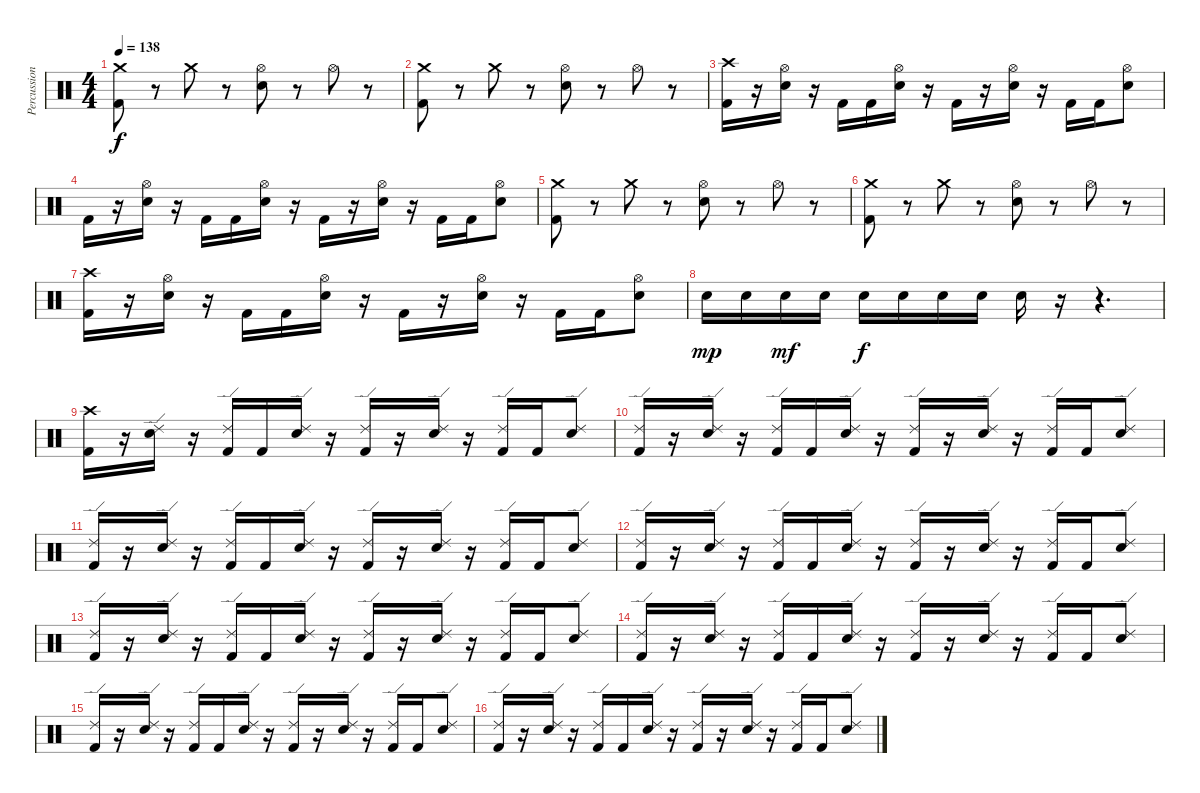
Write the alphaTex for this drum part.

\track ("Percussion" "Percussion") {instrument percussion}
\staff {score}
\articulation defaults
\ts (4 4)
\tempo 138
\clef neutral
\ks c
("Crash medium (hit)" "Kick (hit) 2").8{dy f} r.8 "Crash medium (hit)".8 r.8 ("Hi-Hat (open)" "Electric Snare (hit)").8 r.8 "Hi-Hat (open)".8 r.8 |
("Crash medium (hit)" "Kick (hit) 2").8 r.8 "Crash medium (hit)".8 r.8 ("Hi-Hat (open)" "Electric Snare (hit)").8 r.8 "Hi-Hat (open)".8 r.8 |
("Crash high (hit)" "Kick (hit) 2").16 r.16 ("Hi-Hat (open)" "Electric Snare (hit)").16 r.16 "Kick (hit) 2".16 "Kick (hit) 2".16 ("Hi-Hat (open)" "Electric Snare (hit)").16 r.16 "Kick (hit) 2".16 r.16 ("Hi-Hat (open)" "Electric Snare (hit)").16 r.16 "Kick (hit) 2".16 "Kick (hit) 2".16 ("Hi-Hat (open)" "Electric Snare (hit)").8 |
"Kick (hit) 2".16 r.16 ("Hi-Hat (open)" "Electric Snare (hit)").16 r.16 "Kick (hit) 2".16 "Kick (hit) 2".16 ("Hi-Hat (open)" "Electric Snare (hit)").16 r.16 "Kick (hit) 2".16 r.16 ("Hi-Hat (open)" "Electric Snare (hit)").16 r.16 "Kick (hit) 2".16 "Kick (hit) 2".16 ("Hi-Hat (open)" "Electric Snare (hit)").8 |
("Crash medium (hit)" "Kick (hit) 2").8 r.8 "Crash medium (hit)".8 r.8 ("Hi-Hat (open)" "Electric Snare (hit)").8 r.8 "Hi-Hat (open)".8 r.8 |
("Crash medium (hit)" "Kick (hit) 2").8 r.8 "Crash medium (hit)".8 r.8 ("Hi-Hat (open)" "Electric Snare (hit)").8 r.8 "Hi-Hat (open)".8 r.8 |
("Crash high (hit)" "Kick (hit) 2").16 r.16 ("Hi-Hat (open)" "Electric Snare (hit)").16 r.16 "Kick (hit) 2".16 "Kick (hit) 2".16 ("Hi-Hat (open)" "Electric Snare (hit)").16 r.16 "Kick (hit) 2".16 r.16 ("Hi-Hat (open)" "Electric Snare (hit)").16 r.16 "Kick (hit) 2".16 "Kick (hit) 2".16 ("Hi-Hat (open)" "Electric Snare (hit)").8 |
"Electric Snare (hit)".16{dy mp} "Electric Snare (hit)".16 "Electric Snare (hit)".16{dy mf} "Electric Snare (hit)".16 "Electric Snare (hit)".16{dy f} "Electric Snare (hit)".16 "Electric Snare (hit)".16 "Electric Snare (hit)".16 "Electric Snare (hit)".16 r.16 r.4{d} |
("Crash high (hit)" "Kick (hit) 2").16 r.16 ("Ride (edge) 2" "Electric Snare (hit)").16 r.16 ("Ride (edge) 2" "Kick (hit) 2").16 "Kick (hit) 2".16 ("Ride (edge) 2" "Electric Snare (hit)").16 r.16 ("Ride (edge) 2" "Kick (hit) 2").16 r.16 ("Ride (edge) 2" "Electric Snare (hit)").16 r.16 ("Ride (edge) 2" "Kick (hit) 2").16 "Kick (hit) 2".16 ("Ride (edge) 2" "Electric Snare (hit)").8 |
("Ride (edge) 2" "Kick (hit) 2").16 r.16 ("Ride (edge) 2" "Electric Snare (hit)").16 r.16 ("Ride (edge) 2" "Kick (hit) 2").16 "Kick (hit) 2".16 ("Ride (edge) 2" "Electric Snare (hit)").16 r.16 ("Ride (edge) 2" "Kick (hit) 2").16 r.16 ("Ride (edge) 2" "Electric Snare (hit)").16 r.16 ("Ride (edge) 2" "Kick (hit) 2").16 "Kick (hit) 2".16 ("Ride (edge) 2" "Electric Snare (hit)").8 |
("Ride (edge) 2" "Kick (hit) 2").16 r.16 ("Ride (edge) 2" "Electric Snare (hit)").16 r.16 ("Ride (edge) 2" "Kick (hit) 2").16 "Kick (hit) 2".16 ("Ride (edge) 2" "Electric Snare (hit)").16 r.16 ("Ride (edge) 2" "Kick (hit) 2").16 r.16 ("Ride (edge) 2" "Electric Snare (hit)").16 r.16 ("Ride (edge) 2" "Kick (hit) 2").16 "Kick (hit) 2".16 ("Ride (edge) 2" "Electric Snare (hit)").8 |
("Ride (edge) 2" "Kick (hit) 2").16 r.16 ("Ride (edge) 2" "Electric Snare (hit)").16 r.16 ("Ride (edge) 2" "Kick (hit) 2").16 "Kick (hit) 2".16 ("Ride (edge) 2" "Electric Snare (hit)").16 r.16 ("Ride (edge) 2" "Kick (hit) 2").16 r.16 ("Ride (edge) 2" "Electric Snare (hit)").16 r.16 ("Ride (edge) 2" "Kick (hit) 2").16 "Kick (hit) 2".16 ("Ride (edge) 2" "Electric Snare (hit)").8 |
("Ride (edge) 2" "Kick (hit) 2").16 r.16 ("Ride (edge) 2" "Electric Snare (hit)").16 r.16 ("Ride (edge) 2" "Kick (hit) 2").16 "Kick (hit) 2".16 ("Ride (edge) 2" "Electric Snare (hit)").16 r.16 ("Ride (edge) 2" "Kick (hit) 2").16 r.16 ("Ride (edge) 2" "Electric Snare (hit)").16 r.16 ("Ride (edge) 2" "Kick (hit) 2").16 "Kick (hit) 2".16 ("Ride (edge) 2" "Electric Snare (hit)").8 |
("Ride (edge) 2" "Kick (hit) 2").16 r.16 ("Ride (edge) 2" "Electric Snare (hit)").16 r.16 ("Ride (edge) 2" "Kick (hit) 2").16 "Kick (hit) 2".16 ("Ride (edge) 2" "Electric Snare (hit)").16 r.16 ("Ride (edge) 2" "Kick (hit) 2").16 r.16 ("Ride (edge) 2" "Electric Snare (hit)").16 r.16 ("Ride (edge) 2" "Kick (hit) 2").16 "Kick (hit) 2".16 ("Ride (edge) 2" "Electric Snare (hit)").8 |
("Ride (edge) 2" "Kick (hit) 2").16 r.16 ("Ride (edge) 2" "Electric Snare (hit)").16 r.16 ("Ride (edge) 2" "Kick (hit) 2").16 "Kick (hit) 2".16 ("Ride (edge) 2" "Electric Snare (hit)").16 r.16 ("Ride (edge) 2" "Kick (hit) 2").16 r.16 ("Ride (edge) 2" "Electric Snare (hit)").16 r.16 ("Ride (edge) 2" "Kick (hit) 2").16 "Kick (hit) 2".16 ("Ride (edge) 2" "Electric Snare (hit)").8 |
("Ride (edge) 2" "Kick (hit) 2").16 r.16 ("Ride (edge) 2" "Electric Snare (hit)").16 r.16 ("Ride (edge) 2" "Kick (hit) 2").16 "Kick (hit) 2".16 ("Ride (edge) 2" "Electric Snare (hit)").16 r.16 ("Ride (edge) 2" "Kick (hit) 2").16 r.16 ("Ride (edge) 2" "Electric Snare (hit)").16 r.16 ("Ride (edge) 2" "Kick (hit) 2").16 "Kick (hit) 2".16 ("Ride (edge) 2" "Electric Snare (hit)").8
